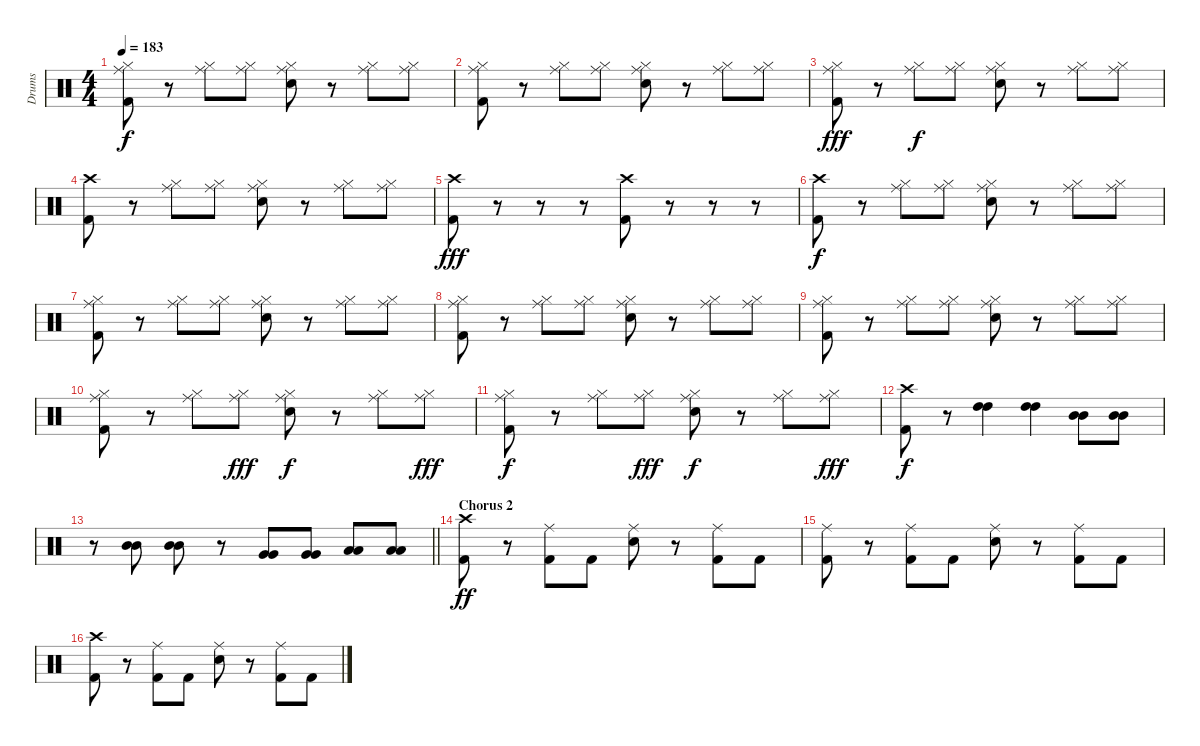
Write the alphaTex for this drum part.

\track ("Drums" "Drums") {instrument percussion}
\staff {score}
\articulation defaults
\ts (4 4)
\tempo 183
\clef neutral
\ks c
("Ride (middle)" "Hi-Hat (closed)" "Kick (hit) 2").8{dy f} r.8 ("Ride (middle)" "Hi-Hat (closed)").8 ("Ride (middle)" "Hi-Hat (closed)").8 ("Ride (middle)" "Hi-Hat (closed)" "Snare (hit) 2").8 r.8 ("Ride (middle)" "Hi-Hat (closed)").8 ("Ride (middle)" "Hi-Hat (closed)").8 |
("Ride (middle)" "Hi-Hat (closed)" "Kick (hit) 2").8 r.8 ("Ride (middle)" "Hi-Hat (closed)").8 ("Ride (middle)" "Hi-Hat (closed)").8 ("Ride (middle)" "Hi-Hat (closed)" "Snare (hit) 2").8 r.8 ("Ride (middle)" "Hi-Hat (closed)").8 ("Ride (middle)" "Hi-Hat (closed)").8 |
("Ride (middle)" "Hi-Hat (closed)" "Kick (hit) 2").8{dy fff} r.8 ("Ride (middle)" "Hi-Hat (closed)").8{dy f} ("Ride (middle)" "Hi-Hat (closed)").8 ("Ride (middle)" "Hi-Hat (closed)" "Snare (hit) 2").8 r.8 ("Ride (middle)" "Hi-Hat (closed)").8 ("Ride (middle)" "Hi-Hat (closed)").8 |
("Crash high (hit)" "Kick (hit) 2").8 r.8 ("Ride (middle)" "Hi-Hat (closed)").8 ("Ride (middle)" "Hi-Hat (closed)").8 ("Ride (middle)" "Hi-Hat (closed)" "Snare (hit) 2").8 r.8 ("Ride (middle)" "Hi-Hat (closed)").8 ("Ride (middle)" "Hi-Hat (closed)").8 |
("Crash high (hit)" "Kick (hit) 2").8{dy fff} r.8 r.8 r.8 ("Crash high (hit)" "Kick (hit) 2").8 r.8 r.8 r.8 |
("Crash high (hit)" "Kick (hit) 2").8{dy f} r.8 ("Ride (middle)" "Hi-Hat (closed)").8 ("Ride (middle)" "Hi-Hat (closed)").8 ("Ride (middle)" "Hi-Hat (closed)" "Snare (hit) 2").8 r.8 ("Ride (middle)" "Hi-Hat (closed)").8 ("Ride (middle)" "Hi-Hat (closed)").8 |
("Ride (middle)" "Hi-Hat (closed)" "Kick (hit) 2").8 r.8 ("Ride (middle)" "Hi-Hat (closed)").8 ("Ride (middle)" "Hi-Hat (closed)").8 ("Ride (middle)" "Hi-Hat (closed)" "Snare (hit) 2").8 r.8 ("Ride (middle)" "Hi-Hat (closed)").8 ("Ride (middle)" "Hi-Hat (closed)").8 |
("Ride (middle)" "Hi-Hat (closed)" "Kick (hit) 2").8 r.8 ("Ride (middle)" "Hi-Hat (closed)").8 ("Ride (middle)" "Hi-Hat (closed)").8 ("Ride (middle)" "Hi-Hat (closed)" "Snare (hit) 2").8 r.8 ("Ride (middle)" "Hi-Hat (closed)").8 ("Ride (middle)" "Hi-Hat (closed)").8 |
("Ride (middle)" "Hi-Hat (closed)" "Kick (hit) 2").8 r.8 ("Ride (middle)" "Hi-Hat (closed)").8 ("Ride (middle)" "Hi-Hat (closed)").8 ("Ride (middle)" "Hi-Hat (closed)" "Snare (hit) 2").8 r.8 ("Ride (middle)" "Hi-Hat (closed)").8 ("Ride (middle)" "Hi-Hat (closed)").8 |
("Ride (middle)" "Hi-Hat (closed)" "Kick (hit) 2").8 r.8 ("Ride (middle)" "Hi-Hat (closed)").8 ("Ride (middle)" "Hi-Hat (closed)").8{dy fff} ("Ride (middle)" "Hi-Hat (closed)" "Snare (hit) 2").8{dy f} r.8 ("Ride (middle)" "Hi-Hat (closed)").8 ("Ride (middle)" "Hi-Hat (closed)").8{dy fff} |
("Ride (middle)" "Hi-Hat (closed)" "Kick (hit) 2").8{dy f} r.8 ("Ride (middle)" "Hi-Hat (closed)").8 ("Ride (middle)" "Hi-Hat (closed)").8{dy fff} ("Ride (middle)" "Hi-Hat (closed)" "Snare (hit) 2").8{dy f} r.8 ("Ride (middle)" "Hi-Hat (closed)").8 ("Ride (middle)" "Hi-Hat (closed)").8{dy fff} |
("Crash high (hit)" "Kick (hit) 2").8{dy f} r.8 ("High Tom (hit)" "High Tom (hit)").4 ("High Tom (hit)" "High Tom (hit)").4 ("Mid Tom (hit)" "Mid Tom (hit)").8 ("Mid Tom (hit)" "Mid Tom (hit)").8 |
\barLineRight lightlight
r.8 ("Mid Tom (hit)" "Mid Tom (hit)").8 ("Mid Tom (hit)" "Mid Tom (hit)").8 r.8 ("Very Low Tom (hit)" "Very Low Tom (hit)").8 ("Very Low Tom (hit)" "Very Low Tom (hit)").8 ("Low Floor Tom (hit)" "Low Floor Tom (hit)").8 ("Low Floor Tom (hit)" "Low Floor Tom (hit)").8 |
\section ("" "Chorus 2")
("Crash high (hit)" "Kick (hit) 2").8{dy ff} r.8 ("Ride (middle)" "Kick (hit) 2").8 "Kick (hit) 2".8 ("Ride (middle)" "Snare (hit) 2").8 r.8 ("Ride (middle)" "Kick (hit) 2").8 "Kick (hit) 2".8 |
("Ride (middle)" "Kick (hit) 2").8 r.8 ("Ride (middle)" "Kick (hit) 2").8 "Kick (hit) 2".8 ("Ride (middle)" "Snare (hit) 2").8 r.8 ("Ride (middle)" "Kick (hit) 2").8 "Kick (hit) 2".8 |
("Crash high (hit)" "Kick (hit) 2").8 r.8 ("Ride (middle)" "Kick (hit) 2").8 "Kick (hit) 2".8 ("Ride (middle)" "Snare (hit) 2").8 r.8 ("Ride (middle)" "Kick (hit) 2").8 "Kick (hit) 2".8
